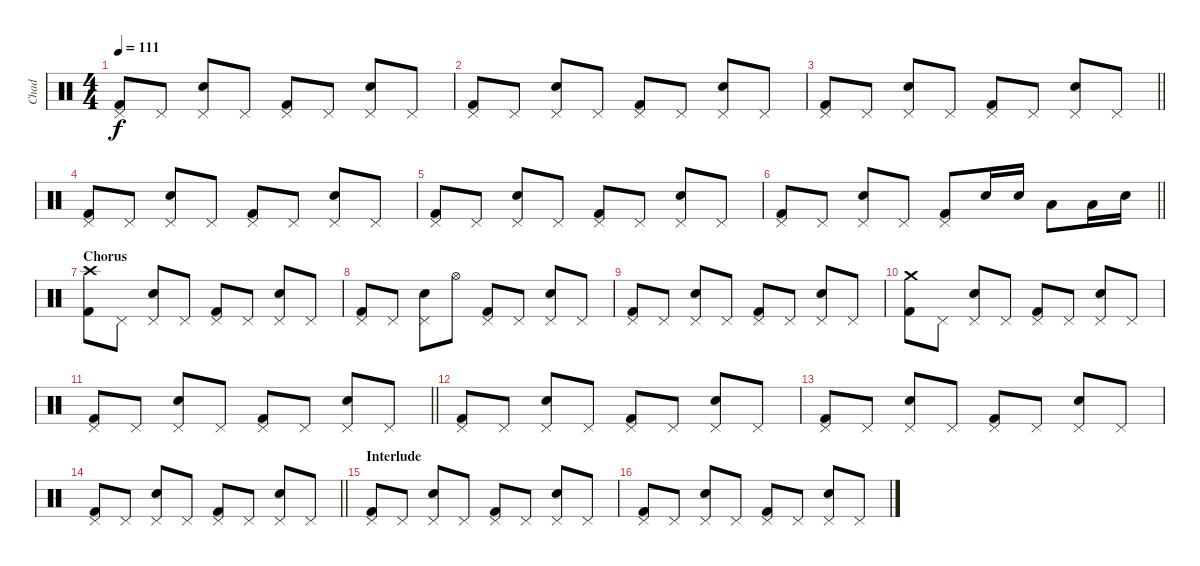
\track ("Chad" "Chad") {instrument percussion}
\staff {score}
\articulation defaults
\ts (4 4)
\tempo 111
\clef neutral
\ks c
("Pedal Hi-Hat (hit)" "Kick (hit) 2").8{dy f} "Pedal Hi-Hat (hit)".8 ("Pedal Hi-Hat (hit)" "Snare (hit) 2").8 "Pedal Hi-Hat (hit)".8 ("Pedal Hi-Hat (hit)" "Kick (hit) 2").8 "Pedal Hi-Hat (hit)".8 ("Pedal Hi-Hat (hit)" "Snare (hit) 2").8 "Pedal Hi-Hat (hit)".8 |
("Pedal Hi-Hat (hit)" "Kick (hit) 2").8 "Pedal Hi-Hat (hit)".8 ("Pedal Hi-Hat (hit)" "Snare (hit) 2").8 "Pedal Hi-Hat (hit)".8 ("Pedal Hi-Hat (hit)" "Kick (hit) 2").8 "Pedal Hi-Hat (hit)".8 ("Pedal Hi-Hat (hit)" "Snare (hit) 2").8 "Pedal Hi-Hat (hit)".8 |
\barLineRight lightlight
("Pedal Hi-Hat (hit)" "Kick (hit) 2").8 "Pedal Hi-Hat (hit)".8 ("Pedal Hi-Hat (hit)" "Snare (hit) 2").8 "Pedal Hi-Hat (hit)".8 ("Pedal Hi-Hat (hit)" "Kick (hit) 2").8 "Pedal Hi-Hat (hit)".8 ("Pedal Hi-Hat (hit)" "Snare (hit) 2").8 "Pedal Hi-Hat (hit)".8 |
("Pedal Hi-Hat (hit)" "Kick (hit) 2").8 "Pedal Hi-Hat (hit)".8 ("Pedal Hi-Hat (hit)" "Snare (hit) 2").8 "Pedal Hi-Hat (hit)".8 ("Pedal Hi-Hat (hit)" "Kick (hit) 2").8 "Pedal Hi-Hat (hit)".8 ("Pedal Hi-Hat (hit)" "Snare (hit) 2").8 "Pedal Hi-Hat (hit)".8 |
("Pedal Hi-Hat (hit)" "Kick (hit) 2").8 "Pedal Hi-Hat (hit)".8 ("Pedal Hi-Hat (hit)" "Snare (hit) 2").8 "Pedal Hi-Hat (hit)".8 ("Pedal Hi-Hat (hit)" "Kick (hit) 2").8 "Pedal Hi-Hat (hit)".8 ("Pedal Hi-Hat (hit)" "Snare (hit) 2").8 "Pedal Hi-Hat (hit)".8 |
\barLineRight lightlight
("Pedal Hi-Hat (hit)" "Kick (hit) 2").8 "Pedal Hi-Hat (hit)".8 ("Pedal Hi-Hat (hit)" "Snare (hit) 2").8 "Pedal Hi-Hat (hit)".8 ("Pedal Hi-Hat (hit)" "Kick (hit) 2").8 "Snare (hit) 2".16 "Snare (hit) 2".16 "Low Floor Tom (hit)".8 "Low Tom (hit)".16 "Snare (hit) 2".16 |
\section ("" "Chorus")
("Crash high (hit)" "Kick (hit) 2").8 "Pedal Hi-Hat (hit)".8 ("Pedal Hi-Hat (hit)" "Snare (hit) 2").8 "Pedal Hi-Hat (hit)".8 ("Pedal Hi-Hat (hit)" "Kick (hit) 2").8 "Pedal Hi-Hat (hit)".8 ("Pedal Hi-Hat (hit)" "Snare (hit) 2").8 "Pedal Hi-Hat (hit)".8 |
("Pedal Hi-Hat (hit)" "Kick (hit) 2").8 "Pedal Hi-Hat (hit)".8 ("Pedal Hi-Hat (hit)" "Snare (hit) 2").8 "Hi-Hat (open)".8 ("Pedal Hi-Hat (hit)" "Kick (hit) 2").8 "Pedal Hi-Hat (hit)".8 ("Pedal Hi-Hat (hit)" "Snare (hit) 2").8 "Pedal Hi-Hat (hit)".8 |
("Pedal Hi-Hat (hit)" "Kick (hit) 2").8 "Pedal Hi-Hat (hit)".8 ("Pedal Hi-Hat (hit)" "Snare (hit) 2").8 "Pedal Hi-Hat (hit)".8 ("Pedal Hi-Hat (hit)" "Kick (hit) 2").8 "Pedal Hi-Hat (hit)".8 ("Pedal Hi-Hat (hit)" "Snare (hit) 2").8 "Pedal Hi-Hat (hit)".8 |
("Crash medium (hit)" "Kick (hit) 2").8 "Pedal Hi-Hat (hit)".8 ("Pedal Hi-Hat (hit)" "Snare (hit) 2").8 "Pedal Hi-Hat (hit)".8 ("Pedal Hi-Hat (hit)" "Kick (hit) 2").8 "Pedal Hi-Hat (hit)".8 ("Pedal Hi-Hat (hit)" "Snare (hit) 2").8 "Pedal Hi-Hat (hit)".8 |
\barLineRight lightlight
("Pedal Hi-Hat (hit)" "Kick (hit) 2").8 "Pedal Hi-Hat (hit)".8 ("Pedal Hi-Hat (hit)" "Snare (hit) 2").8 "Pedal Hi-Hat (hit)".8 ("Pedal Hi-Hat (hit)" "Kick (hit) 2").8 "Pedal Hi-Hat (hit)".8 ("Pedal Hi-Hat (hit)" "Snare (hit) 2").8 "Pedal Hi-Hat (hit)".8 |
("Pedal Hi-Hat (hit)" "Kick (hit) 2").8 "Pedal Hi-Hat (hit)".8 ("Pedal Hi-Hat (hit)" "Snare (hit) 2").8 "Pedal Hi-Hat (hit)".8 ("Pedal Hi-Hat (hit)" "Kick (hit) 2").8 "Pedal Hi-Hat (hit)".8 ("Pedal Hi-Hat (hit)" "Snare (hit) 2").8 "Pedal Hi-Hat (hit)".8 |
("Pedal Hi-Hat (hit)" "Kick (hit) 2").8 "Pedal Hi-Hat (hit)".8 ("Pedal Hi-Hat (hit)" "Snare (hit) 2").8 "Pedal Hi-Hat (hit)".8 ("Pedal Hi-Hat (hit)" "Kick (hit) 2").8 "Pedal Hi-Hat (hit)".8 ("Pedal Hi-Hat (hit)" "Snare (hit) 2").8 "Pedal Hi-Hat (hit)".8 |
\barLineRight lightlight
("Pedal Hi-Hat (hit)" "Kick (hit) 2").8 "Pedal Hi-Hat (hit)".8 ("Pedal Hi-Hat (hit)" "Snare (hit) 2").8 "Pedal Hi-Hat (hit)".8 ("Pedal Hi-Hat (hit)" "Kick (hit) 2").8 "Pedal Hi-Hat (hit)".8 ("Pedal Hi-Hat (hit)" "Snare (hit) 2").8 "Pedal Hi-Hat (hit)".8 |
\section ("" "Interlude")
("Pedal Hi-Hat (hit)" "Kick (hit) 2").8 "Pedal Hi-Hat (hit)".8 ("Pedal Hi-Hat (hit)" "Snare (hit) 2").8 "Pedal Hi-Hat (hit)".8 ("Pedal Hi-Hat (hit)" "Kick (hit) 2").8 "Pedal Hi-Hat (hit)".8 ("Pedal Hi-Hat (hit)" "Snare (hit) 2").8 "Pedal Hi-Hat (hit)".8 |
("Pedal Hi-Hat (hit)" "Kick (hit) 2").8 "Pedal Hi-Hat (hit)".8 ("Pedal Hi-Hat (hit)" "Snare (hit) 2").8 "Pedal Hi-Hat (hit)".8 ("Pedal Hi-Hat (hit)" "Kick (hit) 2").8 "Pedal Hi-Hat (hit)".8 ("Pedal Hi-Hat (hit)" "Snare (hit) 2").8 "Pedal Hi-Hat (hit)".8
